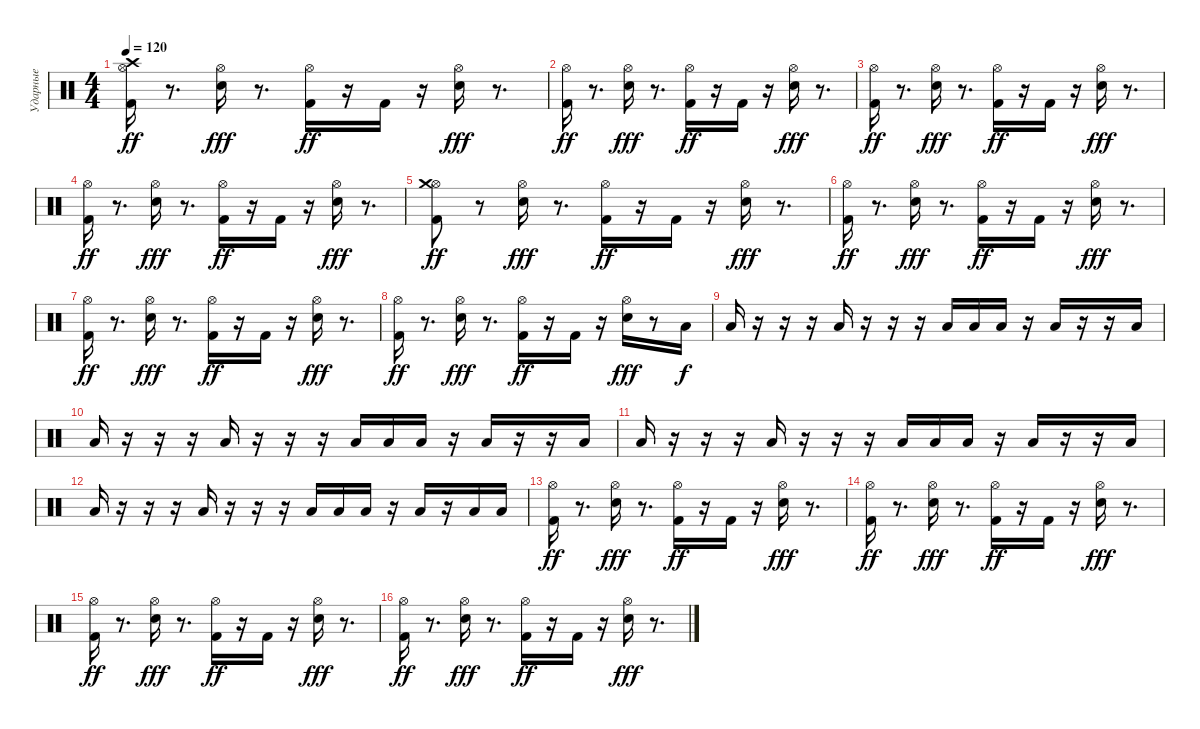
\track ("Ударные" "Ударные") {instrument percussion}
\staff {score}
\articulation defaults
\ts (4 4)
\tempo 120
\clef neutral
\ks c
("Kick (hit) 2" "Hi-Hat (open)" "Crash high (hit)").16{dy ff} r.8{d} ("Snare (hit) 2" "Hi-Hat (open)").16{dy fff} r.8{d} ("Kick (hit) 2" "Hi-Hat (open)").16{dy ff} r.16 "Kick (hit) 2".16 r.16 ("Snare (hit) 2" "Hi-Hat (open)").16{dy fff} r.8{d} |
("Kick (hit) 2" "Hi-Hat (open)").16{dy ff} r.8{d} ("Snare (hit) 2" "Hi-Hat (open)").16{dy fff} r.8{d} ("Kick (hit) 2" "Hi-Hat (open)").16{dy ff} r.16 "Kick (hit) 2".16 r.16 ("Snare (hit) 2" "Hi-Hat (open)").16{dy fff} r.8{d} |
("Kick (hit) 2" "Hi-Hat (open)").16{dy ff} r.8{d} ("Snare (hit) 2" "Hi-Hat (open)").16{dy fff} r.8{d} ("Kick (hit) 2" "Hi-Hat (open)").16{dy ff} r.16 "Kick (hit) 2".16 r.16 ("Snare (hit) 2" "Hi-Hat (open)").16{dy fff} r.8{d} |
("Kick (hit) 2" "Hi-Hat (open)").16{dy ff} r.8{d} ("Snare (hit) 2" "Hi-Hat (open)").16{dy fff} r.8{d} ("Kick (hit) 2" "Hi-Hat (open)").16{dy ff} r.16 "Kick (hit) 2".16 r.16 ("Snare (hit) 2" "Hi-Hat (open)").16{dy fff} r.8{d} |
("Kick (hit) 2" "Hi-Hat (open)" "Crash medium (hit)").8{dy ff} r.8 ("Snare (hit) 2" "Hi-Hat (open)").16{dy fff} r.8{d} ("Kick (hit) 2" "Hi-Hat (open)").16{dy ff} r.16 "Kick (hit) 2".16 r.16 ("Snare (hit) 2" "Hi-Hat (open)").16{dy fff} r.8{d} |
("Kick (hit) 2" "Hi-Hat (open)").16{dy ff} r.8{d} ("Snare (hit) 2" "Hi-Hat (open)").16{dy fff} r.8{d} ("Kick (hit) 2" "Hi-Hat (open)").16{dy ff} r.16 "Kick (hit) 2".16 r.16 ("Snare (hit) 2" "Hi-Hat (open)").16{dy fff} r.8{d} |
("Kick (hit) 2" "Hi-Hat (open)").16{dy ff} r.8{d} ("Snare (hit) 2" "Hi-Hat (open)").16{dy fff} r.8{d} ("Kick (hit) 2" "Hi-Hat (open)").16{dy ff} r.16 "Kick (hit) 2".16 r.16 ("Snare (hit) 2" "Hi-Hat (open)").16{dy fff} r.8{d} |
("Kick (hit) 2" "Hi-Hat (open)").16{dy ff} r.8{d} ("Snare (hit) 2" "Hi-Hat (open)").16{dy fff} r.8{d} ("Kick (hit) 2" "Hi-Hat (open)").16{dy ff} r.16 "Kick (hit) 2".16 r.16 ("Snare (hit) 2" "Hi-Hat (open)").16{dy fff} r.8 "Low Floor Tom (hit)".16{dy f} |
"Low Floor Tom (hit)".16 r.16 r.16 r.16 "Low Floor Tom (hit)".16 r.16 r.16 r.16 "Low Floor Tom (hit)".16 "Low Floor Tom (hit)".16 "Low Floor Tom (hit)".16 r.16 "Low Floor Tom (hit)".16 r.16 r.16 "Low Floor Tom (hit)".16 |
"Low Floor Tom (hit)".16 r.16 r.16 r.16 "Low Floor Tom (hit)".16 r.16 r.16 r.16 "Low Floor Tom (hit)".16 "Low Floor Tom (hit)".16 "Low Floor Tom (hit)".16 r.16 "Low Floor Tom (hit)".16 r.16 r.16 "Low Floor Tom (hit)".16 |
"Low Floor Tom (hit)".16 r.16 r.16 r.16 "Low Floor Tom (hit)".16 r.16 r.16 r.16 "Low Floor Tom (hit)".16 "Low Floor Tom (hit)".16 "Low Floor Tom (hit)".16 r.16 "Low Floor Tom (hit)".16 r.16 r.16 "Low Floor Tom (hit)".16 |
"Low Floor Tom (hit)".16 r.16 r.16 r.16 "Low Floor Tom (hit)".16 r.16 r.16 r.16 "Low Floor Tom (hit)".16 "Low Floor Tom (hit)".16 "Low Floor Tom (hit)".16 r.16 "Low Floor Tom (hit)".16 r.16 "Low Floor Tom (hit)".16 "Low Floor Tom (hit)".16 |
("Kick (hit) 2" "Hi-Hat (open)").16{dy ff} r.8{d} ("Snare (hit) 2" "Hi-Hat (open)").16{dy fff} r.8{d} ("Kick (hit) 2" "Hi-Hat (open)").16{dy ff} r.16 "Kick (hit) 2".16 r.16 ("Snare (hit) 2" "Hi-Hat (open)").16{dy fff} r.8{d} |
("Kick (hit) 2" "Hi-Hat (open)").16{dy ff} r.8{d} ("Snare (hit) 2" "Hi-Hat (open)").16{dy fff} r.8{d} ("Kick (hit) 2" "Hi-Hat (open)").16{dy ff} r.16 "Kick (hit) 2".16 r.16 ("Snare (hit) 2" "Hi-Hat (open)").16{dy fff} r.8{d} |
("Kick (hit) 2" "Hi-Hat (open)").16{dy ff} r.8{d} ("Snare (hit) 2" "Hi-Hat (open)").16{dy fff} r.8{d} ("Kick (hit) 2" "Hi-Hat (open)").16{dy ff} r.16 "Kick (hit) 2".16 r.16 ("Snare (hit) 2" "Hi-Hat (open)").16{dy fff} r.8{d} |
("Kick (hit) 2" "Hi-Hat (open)").16{dy ff} r.8{d} ("Snare (hit) 2" "Hi-Hat (open)").16{dy fff} r.8{d} ("Kick (hit) 2" "Hi-Hat (open)").16{dy ff} r.16 "Kick (hit) 2".16 r.16 ("Snare (hit) 2" "Hi-Hat (open)").16{dy fff} r.8{d}
